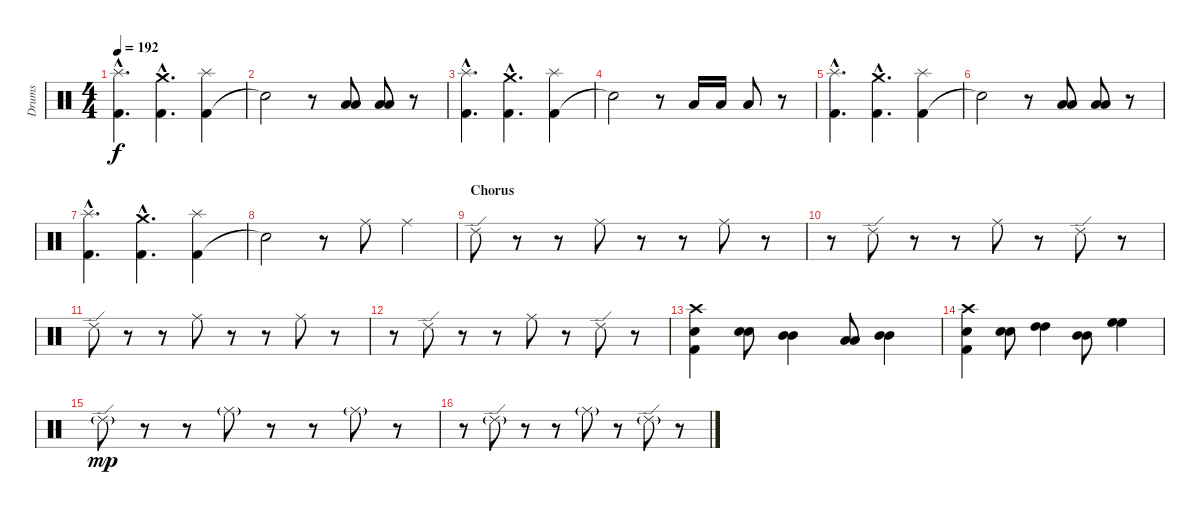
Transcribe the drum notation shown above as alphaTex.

\track ("Drums" "Drums") {instrument percussion}
\staff {score}
\articulation defaults
\ts (4 4)
\tempo 192
\clef neutral
\ks c
("Kick (hit) 2"{hac} "Splash (hit)"{hac}).4{d dy f} ("Kick (hit) 2"{hac} "Crash medium (hit)"{hac}).4{d} ("Kick (hit) 2" "Splash (hit)").4 |
"Snare (hit)"{t}.2 r.8 ("Low Tom (hit)" "Low Tom (hit)").8 ("Low Tom (hit)" "Low Tom (hit)").8 r.8 |
("Kick (hit) 2"{hac} "Splash (hit)"{hac}).4{d} ("Kick (hit) 2"{hac} "Crash medium (hit)"{hac}).4{d} ("Kick (hit) 2" "Splash (hit)").4 |
"Snare (hit)"{t}.2 r.8 "Low Tom (hit)".16 "Low Tom (hit)".16 "Low Tom (hit)".8 r.8 |
("Kick (hit) 2"{hac} "Splash (hit)"{hac}).4{d} ("Kick (hit) 2"{hac} "Crash medium (hit)"{hac}).4{d} ("Kick (hit) 2" "Splash (hit)").4 |
"Snare (hit)"{t}.2 r.8 ("Low Tom (hit)" "Low Tom (hit)").8 ("Low Tom (hit)" "Low Tom (hit)").8 r.8 |
("Kick (hit) 2"{hac} "Splash (hit)"{hac}).4{d} ("Kick (hit) 2"{hac} "Crash medium (hit)"{hac}).4{d} ("Kick (hit) 2" "Splash (hit)").4 |
"Snare (hit)"{t}.2 r.8 "Ride (middle)".8 "Ride (middle)".4 |
\section ("" "Chorus")
"Ride (edge) 2".8 r.8 r.8 "Ride (middle)".8 r.8 r.8 "Ride (middle)".8 r.8 |
r.8 "Ride (edge) 2".8 r.8 r.8 "Ride (middle)".8 r.8 "Ride (edge) 2".8 r.8 |
"Ride (edge) 2".8 r.8 r.8 "Ride (middle)".8 r.8 r.8 "Ride (middle)".8 r.8 |
r.8 "Ride (edge) 2".8 r.8 r.8 "Ride (middle)".8 r.8 "Ride (edge) 2".8 r.8 |
("Kick (hit) 2" "Snare (hit) 2" "Crash high (hit)").4 ("Snare (hit) 2" "Snare (hit) 2").8 ("Mid Tom (hit)" "Mid Tom (hit)").4 ("Low Tom (hit)" "Low Tom (hit)").8 ("Mid Tom (hit)" "Mid Tom (hit)").4 |
("Kick (hit) 2" "Snare (hit) 2" "Crash high (hit)").4 ("Snare (hit) 2" "Snare (hit) 2").8 ("High Tom (hit)" "High Tom (hit)").4 ("Mid Tom (hit)" "Mid Tom (hit)").8 ("High Floor Tom (hit)" "High Floor Tom (hit)").4 |
"Ride (edge) 2"{g}.8{dy mp} r.8 r.8 "Ride (middle)"{g}.8 r.8 r.8 "Ride (middle)"{g}.8 r.8 |
r.8 "Ride (edge) 2"{g}.8 r.8 r.8 "Ride (middle)"{g}.8 r.8 "Ride (edge) 2"{g}.8 r.8
